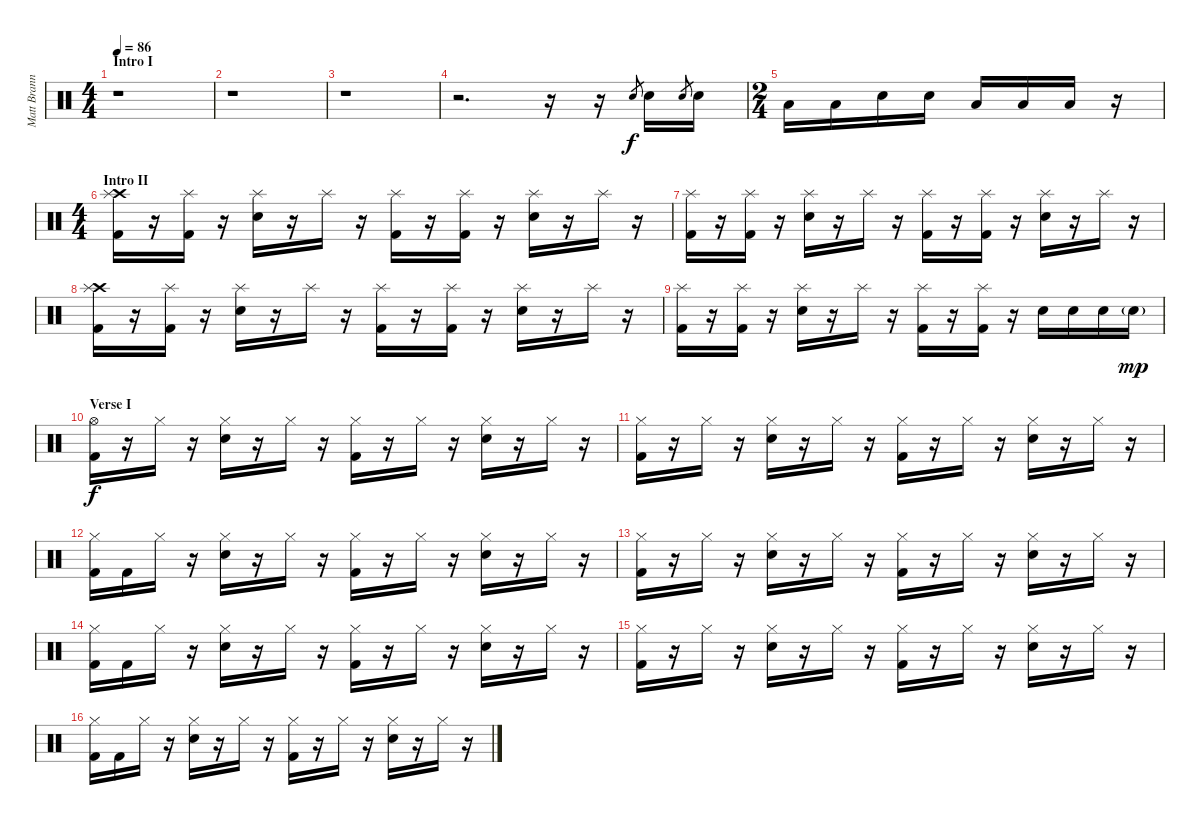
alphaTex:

\track ("Matt Brann - Drums" "Matt Brann") {instrument percussion}
\staff {score}
\articulation defaults
\ts (4 4)
\section ("" "Intro I")
\tempo 86
\clef neutral
\ks c
r.1{dy f} |
r.1 |
r.1 |
r.2{d} r.16 r.16 "Snare (hit) 2".8{gr} "Snare (hit) 2".16 "Snare (hit) 2".8{gr} "Snare (hit) 2".16 |
\ts (2 4)
"Low Floor Tom (hit)".16 "Low Floor Tom (hit)".16 "Snare (hit) 2".16 "Snare (hit) 2".16 "Low Floor Tom (hit)".16 "Low Floor Tom (hit)".16 "Low Floor Tom (hit)".16 r.16 |
\ts (4 4)
\section ("" "Intro II")
("Crash high (hit)" "Splash (hit)" "Kick (hit) 2").16 r.16 ("Splash (hit)" "Kick (hit) 2").16 r.16 ("Splash (hit)" "Snare (hit) 2").16 r.16 "Splash (hit)".16 r.16 ("Splash (hit)" "Kick (hit) 2").16 r.16 ("Splash (hit)" "Kick (hit) 2").16 r.16 ("Splash (hit)" "Snare (hit) 2").16 r.16 "Splash (hit)".16 r.16 |
("Splash (hit)" "Kick (hit) 2").16 r.16 ("Splash (hit)" "Kick (hit) 2").16 r.16 ("Splash (hit)" "Snare (hit) 2").16 r.16 "Splash (hit)".16 r.16 ("Splash (hit)" "Kick (hit) 2").16 r.16 ("Splash (hit)" "Kick (hit) 2").16 r.16 ("Splash (hit)" "Snare (hit) 2").16 r.16 "Splash (hit)".16 r.16 |
("Crash high (hit)" "Splash (hit)" "Kick (hit) 2").16 r.16 ("Splash (hit)" "Kick (hit) 2").16 r.16 ("Splash (hit)" "Snare (hit) 2").16 r.16 "Splash (hit)".16 r.16 ("Splash (hit)" "Kick (hit) 2").16 r.16 ("Splash (hit)" "Kick (hit) 2").16 r.16 ("Splash (hit)" "Snare (hit) 2").16 r.16 "Splash (hit)".16 r.16 |
("Splash (hit)" "Kick (hit) 2").16 r.16 ("Splash (hit)" "Kick (hit) 2").16 r.16 ("Splash (hit)" "Snare (hit) 2").16 r.16 "Splash (hit)".16 r.16 ("Splash (hit)" "Kick (hit) 2").16 r.16 ("Splash (hit)" "Kick (hit) 2").16 r.16 "Snare (hit) 2".16 "Snare (hit) 2".16 "Snare (hit) 2".16 "Snare (hit) 2"{g}.16{dy mp} |
\section ("" "Verse I")
("Hi-Hat (open)" "Kick (hit) 2").16{dy f} r.16 "Hi-Hat (closed)".16 r.16 ("Hi-Hat (closed)" "Snare (hit) 2").16 r.16 "Hi-Hat (closed)".16 r.16 ("Hi-Hat (closed)" "Kick (hit) 2").16 r.16 "Hi-Hat (closed)".16 r.16 ("Hi-Hat (closed)" "Snare (hit) 2").16 r.16 "Hi-Hat (closed)".16 r.16 |
("Hi-Hat (closed)" "Kick (hit) 2").16 r.16 "Hi-Hat (closed)".16 r.16 ("Hi-Hat (closed)" "Snare (hit) 2").16 r.16 "Hi-Hat (closed)".16 r.16 ("Hi-Hat (closed)" "Kick (hit) 2").16 r.16 "Hi-Hat (closed)".16 r.16 ("Hi-Hat (closed)" "Snare (hit) 2").16 r.16 "Hi-Hat (closed)".16 r.16 |
("Hi-Hat (closed)" "Kick (hit) 2").16 "Kick (hit) 2".16 "Hi-Hat (closed)".16 r.16 ("Hi-Hat (closed)" "Snare (hit) 2").16 r.16 "Hi-Hat (closed)".16 r.16 ("Hi-Hat (closed)" "Kick (hit) 2").16 r.16 "Hi-Hat (closed)".16 r.16 ("Hi-Hat (closed)" "Snare (hit) 2").16 r.16 "Hi-Hat (closed)".16 r.16 |
("Hi-Hat (closed)" "Kick (hit) 2").16 r.16 "Hi-Hat (closed)".16 r.16 ("Hi-Hat (closed)" "Snare (hit) 2").16 r.16 "Hi-Hat (closed)".16 r.16 ("Hi-Hat (closed)" "Kick (hit) 2").16 r.16 "Hi-Hat (closed)".16 r.16 ("Hi-Hat (closed)" "Snare (hit) 2").16 r.16 "Hi-Hat (closed)".16 r.16 |
("Hi-Hat (closed)" "Kick (hit) 2").16 "Kick (hit) 2".16 "Hi-Hat (closed)".16 r.16 ("Hi-Hat (closed)" "Snare (hit) 2").16 r.16 "Hi-Hat (closed)".16 r.16 ("Hi-Hat (closed)" "Kick (hit) 2").16 r.16 "Hi-Hat (closed)".16 r.16 ("Hi-Hat (closed)" "Snare (hit) 2").16 r.16 "Hi-Hat (closed)".16 r.16 |
("Hi-Hat (closed)" "Kick (hit) 2").16 r.16 "Hi-Hat (closed)".16 r.16 ("Hi-Hat (closed)" "Snare (hit) 2").16 r.16 "Hi-Hat (closed)".16 r.16 ("Hi-Hat (closed)" "Kick (hit) 2").16 r.16 "Hi-Hat (closed)".16 r.16 ("Hi-Hat (closed)" "Snare (hit) 2").16 r.16 "Hi-Hat (closed)".16 r.16 |
("Hi-Hat (closed)" "Kick (hit) 2").16 "Kick (hit) 2".16 "Hi-Hat (closed)".16 r.16 ("Hi-Hat (closed)" "Snare (hit) 2").16 r.16 "Hi-Hat (closed)".16 r.16 ("Hi-Hat (closed)" "Kick (hit) 2").16 r.16 "Hi-Hat (closed)".16 r.16 ("Hi-Hat (closed)" "Snare (hit) 2").16 r.16 "Hi-Hat (closed)".16 r.16
